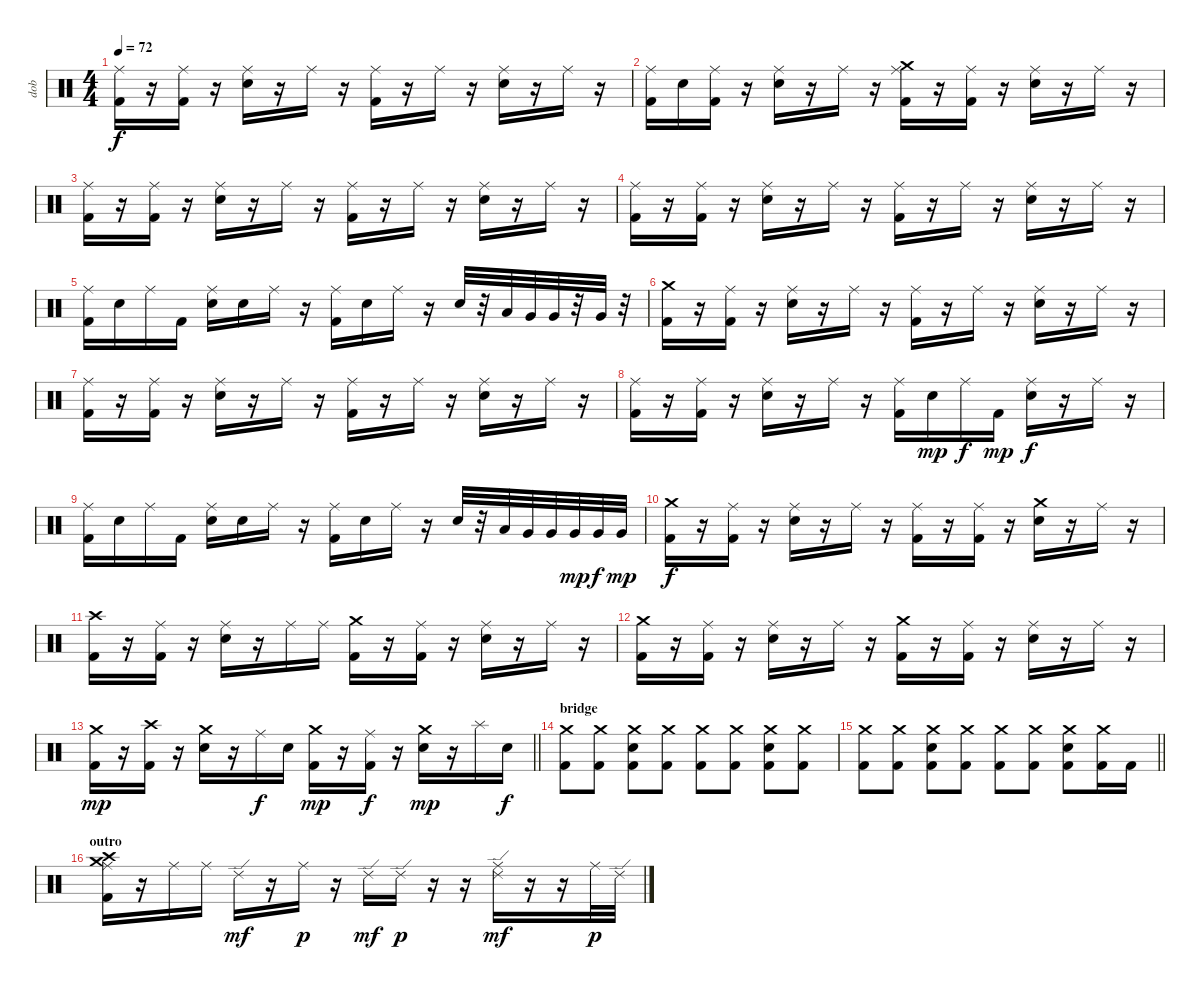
\track ("dob" "dob") {instrument percussion}
\staff {score}
\articulation defaults
\ts (4 4)
\tempo 72
\clef neutral
\ks c
("Kick (hit) 2" "Ride (middle)").16{dy f} r.16 ("Ride (middle)" "Kick (hit) 2").16 r.16 ("Snare (hit) 2" "Ride (middle)").16 r.16 "Ride (middle)".16 r.16 ("Kick (hit) 2" "Ride (middle)").16 r.16 "Ride (middle)".16 r.16 ("Snare (hit) 2" "Ride (middle)").16 r.16 "Ride (middle)".16 r.16 |
("Kick (hit) 2" "Ride (middle)").16 "Snare (hit) 2".16 ("Kick (hit) 2" "Ride (middle)").16 r.16 ("Snare (hit) 2" "Ride (middle)").16 r.16 "Ride (middle)".16 r.16 ("Ride (middle)" "Kick (hit) 2" "Crash medium (hit)").16 r.16 ("Ride (middle)" "Kick (hit) 2").16 r.16 ("Ride (middle)" "Snare (hit) 2").16 r.16 "Ride (middle)".16 r.16 |
("Kick (hit) 2" "Ride (middle)").16 r.16 ("Ride (middle)" "Kick (hit) 2").16 r.16 ("Snare (hit) 2" "Ride (middle)").16 r.16 "Ride (middle)".16 r.16 ("Kick (hit) 2" "Ride (middle)").16 r.16 "Ride (middle)".16 r.16 ("Snare (hit) 2" "Ride (middle)").16 r.16 "Ride (middle)".16 r.16 |
("Kick (hit) 2" "Ride (middle)").16 r.16 ("Ride (middle)" "Kick (hit) 2").16 r.16 ("Snare (hit) 2" "Ride (middle)").16 r.16 "Ride (middle)".16 r.16 ("Kick (hit) 2" "Ride (middle)").16 r.16 "Ride (middle)".16 r.16 ("Snare (hit) 2" "Ride (middle)").16 r.16 "Ride (middle)".16 r.16 |
("Kick (hit) 2" "Ride (middle)").16 "Snare (hit) 2".16 "Ride (middle)".16 "Kick (hit) 2".16 ("Snare (hit) 2" "Ride (middle)").16 "Snare (hit) 2".16 "Ride (middle)".16 r.16 ("Kick (hit) 2" "Ride (middle)").16 "Snare (hit) 2".16 "Ride (middle)".16 r.16 "Snare (hit) 2".32 r.32 "Low Tom (hit)".32 "Very Low Tom (hit)".32 "Very Low Tom (hit)".32 r.32 "Very Low Tom (hit)".32 r.32 |
("Kick (hit) 2" "Crash medium (hit)").16 r.16 ("Ride (middle)" "Kick (hit) 2").16 r.16 ("Snare (hit) 2" "Ride (middle)").16 r.16 "Ride (middle)".16 r.16 ("Kick (hit) 2" "Ride (middle)").16 r.16 "Ride (middle)".16 r.16 ("Snare (hit) 2" "Ride (middle)").16 r.16 "Ride (middle)".16 r.16 |
("Kick (hit) 2" "Ride (middle)").16 r.16 ("Ride (middle)" "Kick (hit) 2").16 r.16 ("Snare (hit) 2" "Ride (middle)").16 r.16 "Ride (middle)".16 r.16 ("Kick (hit) 2" "Ride (middle)").16 r.16 "Ride (middle)".16 r.16 ("Snare (hit) 2" "Ride (middle)").16 r.16 "Ride (middle)".16 r.16 |
("Kick (hit) 2" "Ride (middle)").16 r.16 ("Ride (middle)" "Kick (hit) 2").16 r.16 ("Snare (hit) 2" "Ride (middle)").16 r.16 "Ride (middle)".16 r.16 ("Kick (hit) 2" "Ride (middle)").16 "Snare (hit) 2".16{dy mp} "Ride (middle)".16{dy f} "Kick (hit) 2".16{dy mp} ("Snare (hit) 2" "Ride (middle)").16{dy f} r.16 "Ride (middle)".16 r.16 |
("Kick (hit) 2" "Ride (middle)").16 "Snare (hit) 2".16 "Ride (middle)".16 "Kick (hit) 2".16 ("Snare (hit) 2" "Ride (middle)").16 "Snare (hit) 2".16 "Ride (middle)".16 r.16 ("Kick (hit) 2" "Ride (middle)").16 "Snare (hit) 2".16 "Ride (middle)".16 r.16 "Snare (hit) 2".32 r.32 "Low Tom (hit)".32 "Very Low Tom (hit)".32 "Very Low Tom (hit)".32 "Very Low Tom (hit)".32{dy mp} "Very Low Tom (hit)".32{dy f} "Very Low Tom (hit)".32{dy mp} |
("Kick (hit) 2" "Crash medium (hit)").16{dy f} r.16 ("Ride (middle)" "Kick (hit) 2").16 r.16 ("Snare (hit) 2" "Ride (middle)").16 r.16 "Ride (middle)".16 r.16 ("Kick (hit) 2" "Ride (middle)").16 r.16 ("Kick (hit) 2" "Ride (middle)").16 r.16 ("Snare (hit) 2" "Crash medium (hit)").16 r.16 "Ride (middle)".16 r.16 |
("Kick (hit) 2" "Crash high (hit)").16 r.16 ("Ride (middle)" "Kick (hit) 2").16 r.16 ("Snare (hit) 2" "Ride (middle)").16 r.16 "Ride (middle)".16 "Ride (middle)".16 ("Kick (hit) 2" "Crash medium (hit)").16 r.16 ("Kick (hit) 2" "Ride (middle)").16 r.16 ("Snare (hit) 2" "Ride (middle)").16 r.16 "Ride (middle)".16 r.16 |
("Kick (hit) 2" "Crash medium (hit)").16 r.16 ("Ride (middle)" "Kick (hit) 2").16 r.16 ("Snare (hit) 2" "Ride (middle)").16 r.16 "Ride (middle)".16 r.16 ("Kick (hit) 2" "Crash medium (hit)").16 r.16 ("Kick (hit) 2" "Ride (middle)").16 r.16 ("Snare (hit) 2" "Ride (middle)").16 r.16 "Ride (middle)".16 r.16 |
\barLineRight lightlight
("Kick (hit) 2" "Crash medium (hit)").16{dy mp} r.16 ("Crash high (hit)" "Kick (hit) 2").16 r.16 ("Snare (hit) 2" "Crash medium (hit)").16 r.16 "Ride (middle)".16{dy f} "Snare (hit) 2".16 ("Kick (hit) 2" "Crash medium (hit)").16{dy mp} r.16 ("Kick (hit) 2" "Ride (middle)").16{dy f} r.16 ("Snare (hit) 2" "Crash medium (hit)").16{dy mp} r.16 "Splash (hit)".16 "Snare (hit) 2".16{dy f} |
\section ("" "bridge")
("Kick (hit) 2" "Crash medium (hit)").8 ("Kick (hit) 2" "Crash medium (hit)").8 ("Kick (hit) 2" "Snare (hit) 2" "Crash medium (hit)").8 ("Kick (hit) 2" "Crash medium (hit)").8 ("Kick (hit) 2" "Crash medium (hit)").8 ("Kick (hit) 2" "Crash medium (hit)").8 ("Kick (hit) 2" "Snare (hit) 2" "Crash medium (hit)").8 ("Kick (hit) 2" "Crash medium (hit)").8 |
\barLineRight lightlight
("Kick (hit) 2" "Crash medium (hit)").8 ("Kick (hit) 2" "Crash medium (hit)").8 ("Kick (hit) 2" "Snare (hit) 2" "Crash medium (hit)").8 ("Kick (hit) 2" "Crash medium (hit)").8 ("Kick (hit) 2" "Crash medium (hit)").8 ("Kick (hit) 2" "Crash medium (hit)").8 ("Kick (hit) 2" "Snare (hit) 2" "Crash medium (hit)").8 ("Kick (hit) 2" "Crash medium (hit)").16 "Kick (hit) 2".16 |
\section ("" "outro")
("Ride (middle)" "Kick (hit) 2" "Crash medium (hit)" "Crash high (hit)").16 r.16 "Ride (middle)".16 "Ride (middle)".16 "Ride (edge) 2".16{dy mf} r.16 "Ride (middle)".16{dy p} r.16 "Ride (edge) 2".16{dy mf} "Ride (edge) 2".16{dy p} r.16 r.16 ("Ride (middle)" "Ride (edge) 2").16{dy mf} r.16 r.16 "Ride (middle)".32{dy p} "Ride (edge) 2".32
